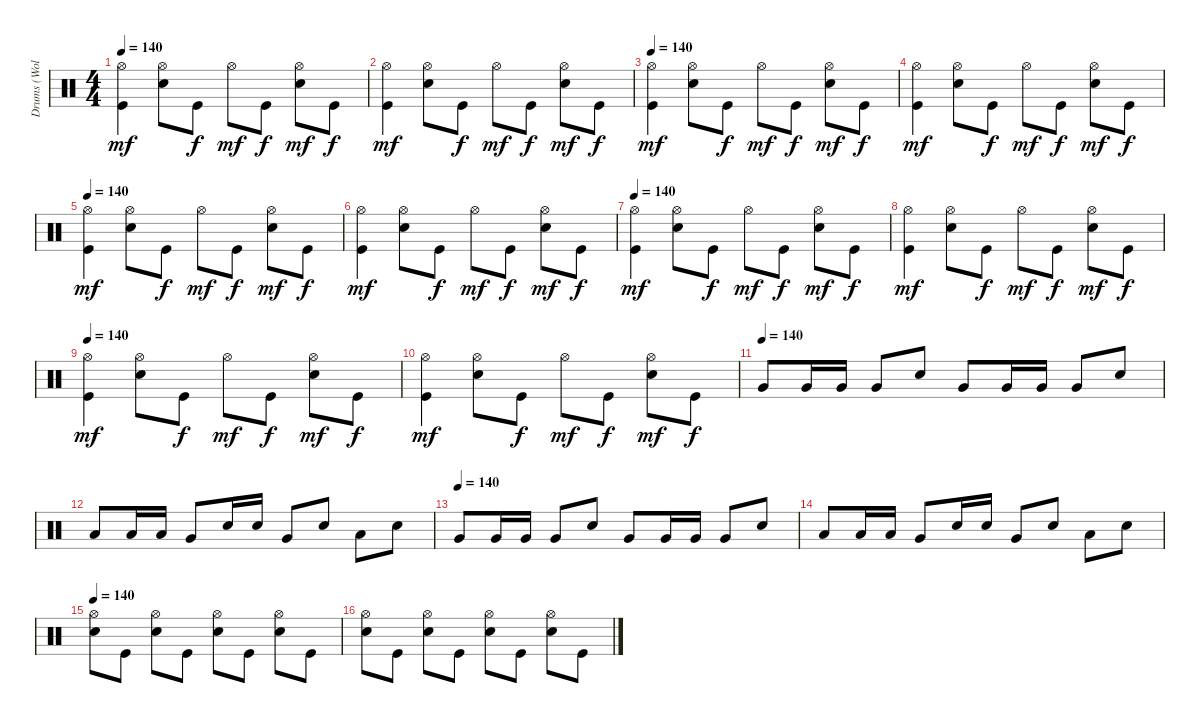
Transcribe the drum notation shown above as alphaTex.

\track ("Drums (Wolf Simons)" "Drums (Wol") {instrument percussion}
\staff {score}
\articulation defaults
\ts (4 4)
\tempo 140
\clef neutral
\ks c
("Kick (hit)" "Hi-Hat (open)").4{dy mf} ("Electric Snare (hit)" "Hi-Hat (open)").8 "Kick (hit)".8{dy f} "Hi-Hat (open)".8{dy mf} "Kick (hit)".8{dy f} ("Electric Snare (hit)" "Hi-Hat (open)").8{dy mf} "Kick (hit)".8{dy f} |
("Kick (hit)" "Hi-Hat (open)").4{dy mf} ("Electric Snare (hit)" "Hi-Hat (open)").8 "Kick (hit)".8{dy f} "Hi-Hat (open)".8{dy mf} "Kick (hit)".8{dy f} ("Electric Snare (hit)" "Hi-Hat (open)").8{dy mf} "Kick (hit)".8{dy f} |
\tempo 140
("Kick (hit)" "Hi-Hat (open)").4{dy mf} ("Electric Snare (hit)" "Hi-Hat (open)").8 "Kick (hit)".8{dy f} "Hi-Hat (open)".8{dy mf} "Kick (hit)".8{dy f} ("Electric Snare (hit)" "Hi-Hat (open)").8{dy mf} "Kick (hit)".8{dy f} |
("Kick (hit)" "Hi-Hat (open)").4{dy mf} ("Electric Snare (hit)" "Hi-Hat (open)").8 "Kick (hit)".8{dy f} "Hi-Hat (open)".8{dy mf} "Kick (hit)".8{dy f} ("Electric Snare (hit)" "Hi-Hat (open)").8{dy mf} "Kick (hit)".8{dy f} |
\tempo 140
("Kick (hit)" "Hi-Hat (open)").4{dy mf} ("Electric Snare (hit)" "Hi-Hat (open)").8 "Kick (hit)".8{dy f} "Hi-Hat (open)".8{dy mf} "Kick (hit)".8{dy f} ("Electric Snare (hit)" "Hi-Hat (open)").8{dy mf} "Kick (hit)".8{dy f} |
("Kick (hit)" "Hi-Hat (open)").4{dy mf} ("Electric Snare (hit)" "Hi-Hat (open)").8 "Kick (hit)".8{dy f} "Hi-Hat (open)".8{dy mf} "Kick (hit)".8{dy f} ("Electric Snare (hit)" "Hi-Hat (open)").8{dy mf} "Kick (hit)".8{dy f} |
\tempo 140
("Kick (hit)" "Hi-Hat (open)").4{dy mf} ("Electric Snare (hit)" "Hi-Hat (open)").8 "Kick (hit)".8{dy f} "Hi-Hat (open)".8{dy mf} "Kick (hit)".8{dy f} ("Electric Snare (hit)" "Hi-Hat (open)").8{dy mf} "Kick (hit)".8{dy f} |
("Kick (hit)" "Hi-Hat (open)").4{dy mf} ("Electric Snare (hit)" "Hi-Hat (open)").8 "Kick (hit)".8{dy f} "Hi-Hat (open)".8{dy mf} "Kick (hit)".8{dy f} ("Electric Snare (hit)" "Hi-Hat (open)").8{dy mf} "Kick (hit)".8{dy f} |
\tempo 140
("Kick (hit)" "Hi-Hat (open)").4{dy mf} ("Electric Snare (hit)" "Hi-Hat (open)").8 "Kick (hit)".8{dy f} "Hi-Hat (open)".8{dy mf} "Kick (hit)".8{dy f} ("Electric Snare (hit)" "Hi-Hat (open)").8{dy mf} "Kick (hit)".8{dy f} |
("Kick (hit)" "Hi-Hat (open)").4{dy mf} ("Electric Snare (hit)" "Hi-Hat (open)").8 "Kick (hit)".8{dy f} "Hi-Hat (open)".8{dy mf} "Kick (hit)".8{dy f} ("Electric Snare (hit)" "Hi-Hat (open)").8{dy mf} "Kick (hit)".8{dy f} |
\tempo (140)
"Very Low Tom (hit)".8 "Very Low Tom (hit)".16 "Very Low Tom (hit)".16 "Very Low Tom (hit)".8 "Electric Snare (hit)".8 "Very Low Tom (hit)".8 "Very Low Tom (hit)".16 "Very Low Tom (hit)".16 "Very Low Tom (hit)".8 "Electric Snare (hit)".8 |
"Low Tom (hit)".8 "Low Tom (hit)".16 "Low Tom (hit)".16 "Very Low Tom (hit)".8 "Electric Snare (hit)".16 "Electric Snare (hit)".16 "Very Low Tom (hit)".8 "Electric Snare (hit)".8 "Low Tom (hit)".8 "Electric Snare (hit)".8 |
\tempo (140)
"Very Low Tom (hit)".8 "Very Low Tom (hit)".16 "Very Low Tom (hit)".16 "Very Low Tom (hit)".8 "Electric Snare (hit)".8 "Very Low Tom (hit)".8 "Very Low Tom (hit)".16 "Very Low Tom (hit)".16 "Very Low Tom (hit)".8 "Electric Snare (hit)".8 |
"Low Tom (hit)".8 "Low Tom (hit)".16 "Low Tom (hit)".16 "Very Low Tom (hit)".8 "Electric Snare (hit)".16 "Electric Snare (hit)".16 "Very Low Tom (hit)".8 "Electric Snare (hit)".8 "Low Tom (hit)".8 "Electric Snare (hit)".8 |
\tempo 140
("Hi-Hat (open)" "Electric Snare (hit)").8 "Kick (hit)".8 ("Hi-Hat (open)" "Electric Snare (hit)").8 "Kick (hit)".8 ("Hi-Hat (open)" "Electric Snare (hit)").8 "Kick (hit)".8 ("Hi-Hat (open)" "Electric Snare (hit)").8 "Kick (hit)".8 |
("Hi-Hat (open)" "Electric Snare (hit)").8 "Kick (hit)".8 ("Hi-Hat (open)" "Electric Snare (hit)").8 "Kick (hit)".8 ("Hi-Hat (open)" "Electric Snare (hit)").8 "Kick (hit)".8 ("Hi-Hat (open)" "Electric Snare (hit)").8 "Kick (hit)".8
